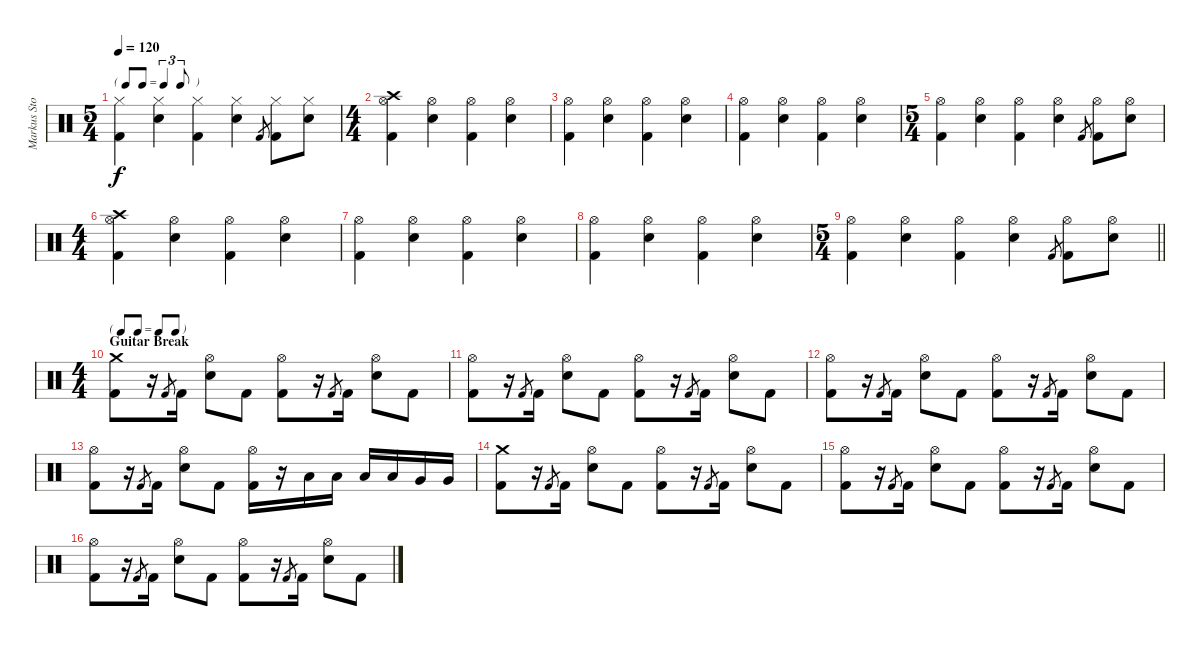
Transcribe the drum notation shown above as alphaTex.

\track ("Markus Stock" "Markus Sto") {instrument percussion}
\staff {score}
\articulation defaults
\ts (5 4)
\tf triplet8th
\tempo 120
\clef neutral
\ks c
("Hi-Hat (closed)" "Kick (hit) 2").4{dy f} ("Hi-Hat (closed)" "Snare (hit) 2").4 ("Hi-Hat (closed)" "Kick (hit) 2").4 ("Hi-Hat (closed)" "Snare (hit) 2").4 "Kick (hit) 2".8{gr} ("Hi-Hat (closed)" "Kick (hit) 2").8 ("Hi-Hat (closed)" "Snare (hit) 2").8 |
\ts (4 4)
("Crash high (hit)" "Hi-Hat (open)" "Kick (hit) 2").4 ("Hi-Hat (open)" "Snare (hit) 2").4 ("Hi-Hat (open)" "Kick (hit) 2").4 ("Hi-Hat (open)" "Snare (hit) 2").4 |
("Hi-Hat (open)" "Kick (hit) 2").4 ("Hi-Hat (open)" "Snare (hit) 2").4 ("Hi-Hat (open)" "Kick (hit) 2").4 ("Hi-Hat (open)" "Snare (hit) 2").4 |
("Hi-Hat (open)" "Kick (hit) 2").4 ("Hi-Hat (open)" "Snare (hit) 2").4 ("Hi-Hat (open)" "Kick (hit) 2").4 ("Hi-Hat (open)" "Snare (hit) 2").4 |
\ts (5 4)
("Hi-Hat (open)" "Kick (hit) 2").4 ("Hi-Hat (open)" "Snare (hit) 2").4 ("Hi-Hat (open)" "Kick (hit) 2").4 ("Hi-Hat (open)" "Snare (hit) 2").4 "Kick (hit) 2".8{gr} ("Hi-Hat (open)" "Kick (hit) 2").8 ("Hi-Hat (open)" "Snare (hit) 2").8 |
\ts (4 4)
("Crash high (hit)" "Hi-Hat (open)" "Kick (hit) 2").4 ("Hi-Hat (open)" "Snare (hit) 2").4 ("Hi-Hat (open)" "Kick (hit) 2").4 ("Hi-Hat (open)" "Snare (hit) 2").4 |
("Hi-Hat (open)" "Kick (hit) 2").4 ("Hi-Hat (open)" "Snare (hit) 2").4 ("Hi-Hat (open)" "Kick (hit) 2").4 ("Hi-Hat (open)" "Snare (hit) 2").4 |
("Hi-Hat (open)" "Kick (hit) 2").4 ("Hi-Hat (open)" "Snare (hit) 2").4 ("Hi-Hat (open)" "Kick (hit) 2").4 ("Hi-Hat (open)" "Snare (hit) 2").4 |
\ts (5 4)
\barLineRight lightlight
("Hi-Hat (open)" "Kick (hit) 2").4 ("Hi-Hat (open)" "Snare (hit) 2").4 ("Hi-Hat (open)" "Kick (hit) 2").4 ("Hi-Hat (open)" "Snare (hit) 2").4 "Kick (hit) 2".8{gr} ("Hi-Hat (open)" "Kick (hit) 2").8 ("Hi-Hat (open)" "Snare (hit) 2").8 |
\ts (4 4)
\tf none
\section ("" "Guitar Break")
("Crash medium (hit)" "Kick (hit) 2").8 r.16 "Kick (hit) 2".8{gr} "Kick (hit) 2".16 ("Hi-Hat (open)" "Snare (hit) 2").8 "Kick (hit) 2".8 ("Hi-Hat (open)" "Kick (hit) 2").8 r.16 "Kick (hit) 2".8{gr} "Kick (hit) 2".16 ("Hi-Hat (open)" "Snare (hit) 2").8 "Kick (hit) 2".8 |
("Hi-Hat (open)" "Kick (hit) 2").8 r.16 "Kick (hit) 2".8{gr} "Kick (hit) 2".16 ("Hi-Hat (open)" "Snare (hit) 2").8 "Kick (hit) 2".8 ("Hi-Hat (open)" "Kick (hit) 2").8 r.16 "Kick (hit) 2".8{gr} "Kick (hit) 2".16 ("Hi-Hat (open)" "Snare (hit) 2").8 "Kick (hit) 2".8 |
("Hi-Hat (open)" "Kick (hit) 2").8 r.16 "Kick (hit) 2".8{gr} "Kick (hit) 2".16 ("Hi-Hat (open)" "Snare (hit) 2").8 "Kick (hit) 2".8 ("Hi-Hat (open)" "Kick (hit) 2").8 r.16 "Kick (hit) 2".8{gr} "Kick (hit) 2".16 ("Hi-Hat (open)" "Snare (hit) 2").8 "Kick (hit) 2".8 |
("Hi-Hat (open)" "Kick (hit) 2").8 r.16 "Kick (hit) 2".8{gr} "Kick (hit) 2".16 ("Hi-Hat (open)" "Snare (hit) 2").8 "Kick (hit) 2".8 ("Hi-Hat (open)" "Kick (hit) 2").16 r.16 "Low Tom (hit)".16 "Low Tom (hit)".16 "Low Tom (hit)".16 "Low Tom (hit)".16 "Very Low Tom (hit)".16 "Very Low Tom (hit)".16 |
("Crash medium (hit)" "Kick (hit) 2").8 r.16 "Kick (hit) 2".8{gr} "Kick (hit) 2".16 ("Hi-Hat (open)" "Snare (hit) 2").8 "Kick (hit) 2".8 ("Hi-Hat (open)" "Kick (hit) 2").8 r.16 "Kick (hit) 2".8{gr} "Kick (hit) 2".16 ("Hi-Hat (open)" "Snare (hit) 2").8 "Kick (hit) 2".8 |
("Hi-Hat (open)" "Kick (hit) 2").8 r.16 "Kick (hit) 2".8{gr} "Kick (hit) 2".16 ("Hi-Hat (open)" "Snare (hit) 2").8 "Kick (hit) 2".8 ("Hi-Hat (open)" "Kick (hit) 2").8 r.16 "Kick (hit) 2".8{gr} "Kick (hit) 2".16 ("Hi-Hat (open)" "Snare (hit) 2").8 "Kick (hit) 2".8 |
("Hi-Hat (open)" "Kick (hit) 2").8 r.16 "Kick (hit) 2".8{gr} "Kick (hit) 2".16 ("Hi-Hat (open)" "Snare (hit) 2").8 "Kick (hit) 2".8 ("Hi-Hat (open)" "Kick (hit) 2").8 r.16 "Kick (hit) 2".8{gr} "Kick (hit) 2".16 ("Hi-Hat (open)" "Snare (hit) 2").8 "Kick (hit) 2".8
